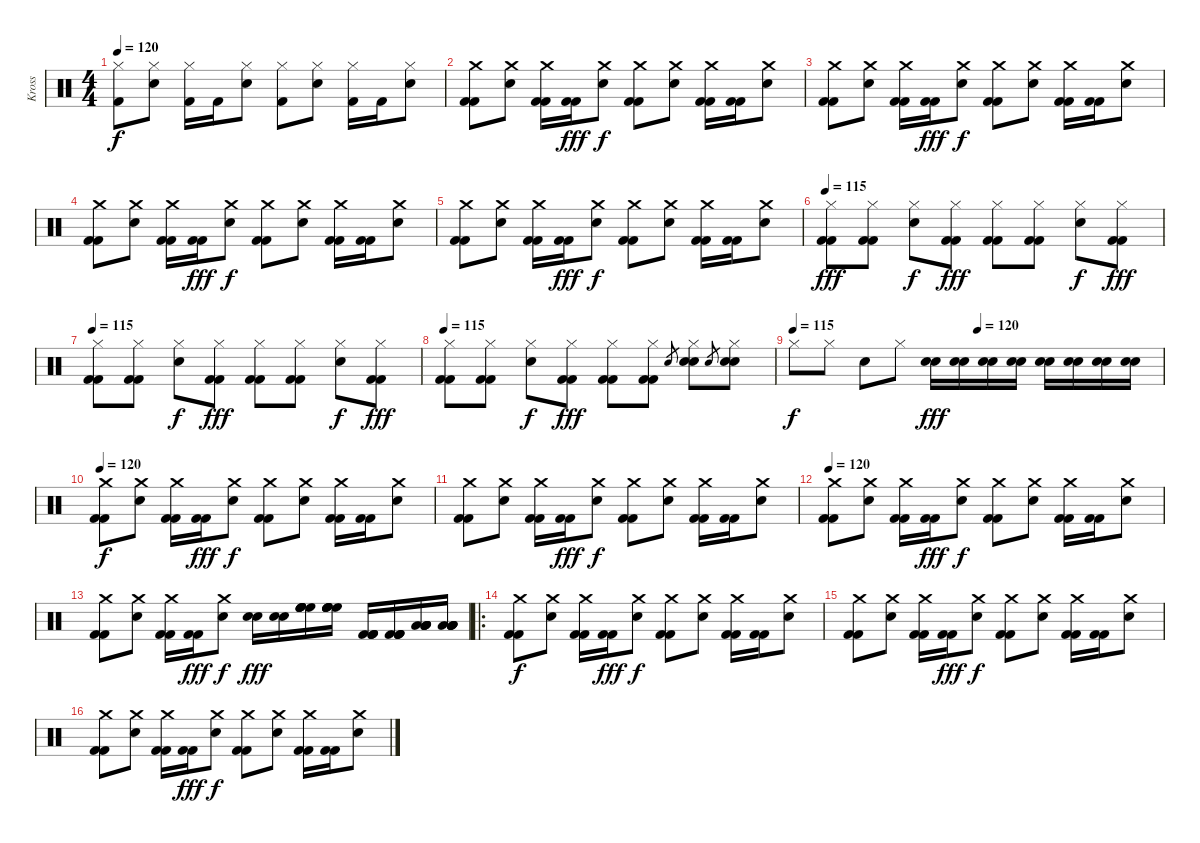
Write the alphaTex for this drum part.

\track ("Kross" "Kross") {instrument percussion}
\staff {score}
\articulation defaults
\ts (4 4)
\tempo 120
\clef neutral
\ks c
("Kick (hit) 2" "Hi-Hat (closed)").8{dy f} ("Hi-Hat (closed)" "Snare (hit) 2").8 ("Kick (hit) 2" "Hi-Hat (closed)").16 "Kick (hit) 2".16 ("Hi-Hat (closed)" "Snare (hit) 2").8 ("Kick (hit) 2" "Hi-Hat (closed)").8 ("Hi-Hat (closed)" "Snare (hit) 2").8 ("Kick (hit) 2" "Hi-Hat (closed)").16 "Kick (hit) 2".16 ("Hi-Hat (closed)" "Snare (hit) 2").8 |
("Kick (hit) 2" "Kick (hit) 2" "Crash medium (hit)").8 ("Crash medium (hit)" "Snare (hit) 2").8 ("Kick (hit) 2" "Kick (hit) 2" "Crash medium (hit)").16 ("Kick (hit) 2" "Kick (hit) 2").16{dy fff} ("Crash medium (hit)" "Snare (hit) 2").8{dy f} ("Kick (hit) 2" "Kick (hit) 2" "Crash medium (hit)").8 ("Crash medium (hit)" "Snare (hit) 2").8 ("Kick (hit) 2" "Kick (hit) 2" "Crash medium (hit)").16 ("Kick (hit) 2" "Kick (hit) 2").16 ("Crash medium (hit)" "Snare (hit) 2").8 |
("Kick (hit) 2" "Kick (hit) 2" "Crash medium (hit)").8 ("Crash medium (hit)" "Snare (hit) 2").8 ("Kick (hit) 2" "Kick (hit) 2" "Crash medium (hit)").16 ("Kick (hit) 2" "Kick (hit) 2").16{dy fff} ("Crash medium (hit)" "Snare (hit) 2").8{dy f} ("Kick (hit) 2" "Kick (hit) 2" "Crash medium (hit)").8 ("Crash medium (hit)" "Snare (hit) 2").8 ("Kick (hit) 2" "Kick (hit) 2" "Crash medium (hit)").16 ("Kick (hit) 2" "Kick (hit) 2").16 ("Crash medium (hit)" "Snare (hit) 2").8 |
("Kick (hit) 2" "Kick (hit) 2" "Crash medium (hit)").8 ("Crash medium (hit)" "Snare (hit) 2").8 ("Kick (hit) 2" "Kick (hit) 2" "Crash medium (hit)").16 ("Kick (hit) 2" "Kick (hit) 2").16{dy fff} ("Crash medium (hit)" "Snare (hit) 2").8{dy f} ("Kick (hit) 2" "Kick (hit) 2" "Crash medium (hit)").8 ("Crash medium (hit)" "Snare (hit) 2").8 ("Kick (hit) 2" "Kick (hit) 2" "Crash medium (hit)").16 ("Kick (hit) 2" "Kick (hit) 2").16 ("Crash medium (hit)" "Snare (hit) 2").8 |
("Kick (hit) 2" "Kick (hit) 2" "Crash medium (hit)").8 ("Crash medium (hit)" "Snare (hit) 2").8 ("Kick (hit) 2" "Kick (hit) 2" "Crash medium (hit)").16 ("Kick (hit) 2" "Kick (hit) 2").16{dy fff} ("Crash medium (hit)" "Snare (hit) 2").8{dy f} ("Kick (hit) 2" "Kick (hit) 2" "Crash medium (hit)").8 ("Crash medium (hit)" "Snare (hit) 2").8 ("Kick (hit) 2" "Kick (hit) 2" "Crash medium (hit)").16 ("Kick (hit) 2" "Kick (hit) 2").16 ("Crash medium (hit)" "Snare (hit) 2").8 |
\tempo 115
("Kick (hit) 2" "Kick (hit) 2" "Hi-Hat (closed)").8{dy fff} ("Kick (hit) 2" "Kick (hit) 2" "Hi-Hat (closed)").8 ("Hi-Hat (closed)" "Snare (hit) 2").8{dy f} ("Kick (hit) 2" "Kick (hit) 2" "Hi-Hat (closed)").8{dy fff} ("Kick (hit) 2" "Kick (hit) 2" "Hi-Hat (closed)").8 ("Kick (hit) 2" "Kick (hit) 2" "Hi-Hat (closed)").8 ("Hi-Hat (closed)" "Snare (hit) 2").8{dy f} ("Kick (hit) 2" "Kick (hit) 2" "Hi-Hat (closed)").8{dy fff} |
\tempo 115
("Kick (hit) 2" "Kick (hit) 2" "Hi-Hat (closed)").8 ("Kick (hit) 2" "Kick (hit) 2" "Hi-Hat (closed)").8 ("Hi-Hat (closed)" "Snare (hit) 2").8{dy f} ("Kick (hit) 2" "Kick (hit) 2" "Hi-Hat (closed)").8{dy fff} ("Kick (hit) 2" "Kick (hit) 2" "Hi-Hat (closed)").8 ("Kick (hit) 2" "Kick (hit) 2" "Hi-Hat (closed)").8 ("Hi-Hat (closed)" "Snare (hit) 2").8{dy f} ("Kick (hit) 2" "Kick (hit) 2" "Hi-Hat (closed)").8{dy fff} |
\tempo 115
("Kick (hit) 2" "Kick (hit) 2" "Hi-Hat (closed)").8 ("Kick (hit) 2" "Kick (hit) 2" "Hi-Hat (closed)").8 ("Hi-Hat (closed)" "Snare (hit) 2").8{dy f} ("Kick (hit) 2" "Kick (hit) 2" "Hi-Hat (closed)").8{dy fff} ("Kick (hit) 2" "Kick (hit) 2" "Hi-Hat (closed)").8 ("Kick (hit) 2" "Kick (hit) 2" "Hi-Hat (closed)").8 "Snare (hit) 2".8{gr} ("Snare (hit) 2" "Hi-Hat (closed)" "Snare (hit) 2").8 "Snare (hit) 2".8{gr} ("Snare (hit) 2" "Hi-Hat (closed)" "Snare (hit) 2").8 |
\tempo (120 0.5)
\tempo (115)
"Hi-Hat (closed)".8{dy f} "Hi-Hat (closed)".8 "Snare (hit) 2".8 "Hi-Hat (closed)".8 ("Snare (hit) 2" "Snare (hit) 2").16{dy fff} ("Snare (hit) 2" "Snare (hit) 2").16 ("Snare (hit) 2" "Snare (hit) 2").16 ("Snare (hit) 2" "Snare (hit) 2").16 ("Snare (hit) 2" "Snare (hit) 2").16 ("Snare (hit) 2" "Snare (hit) 2").16 ("Snare (hit) 2" "Snare (hit) 2").16 ("Snare (hit) 2" "Snare (hit) 2").16 |
\tempo 120
("Kick (hit) 2" "Kick (hit) 2" "Crash medium (hit)").8{dy f} ("Crash medium (hit)" "Snare (hit) 2").8 ("Kick (hit) 2" "Kick (hit) 2" "Crash medium (hit)").16 ("Kick (hit) 2" "Kick (hit) 2").16{dy fff} ("Crash medium (hit)" "Snare (hit) 2").8{dy f} ("Kick (hit) 2" "Kick (hit) 2" "Crash medium (hit)").8 ("Crash medium (hit)" "Snare (hit) 2").8 ("Kick (hit) 2" "Kick (hit) 2" "Crash medium (hit)").16 ("Kick (hit) 2" "Kick (hit) 2").16 ("Crash medium (hit)" "Snare (hit) 2").8 |
("Kick (hit) 2" "Kick (hit) 2" "Crash medium (hit)").8 ("Crash medium (hit)" "Snare (hit) 2").8 ("Kick (hit) 2" "Kick (hit) 2" "Crash medium (hit)").16 ("Kick (hit) 2" "Kick (hit) 2").16{dy fff} ("Crash medium (hit)" "Snare (hit) 2").8{dy f} ("Kick (hit) 2" "Kick (hit) 2" "Crash medium (hit)").8 ("Crash medium (hit)" "Snare (hit) 2").8 ("Kick (hit) 2" "Kick (hit) 2" "Crash medium (hit)").16 ("Kick (hit) 2" "Kick (hit) 2").16 ("Crash medium (hit)" "Snare (hit) 2").8 |
\tempo 120
("Kick (hit) 2" "Kick (hit) 2" "Crash medium (hit)").8 ("Crash medium (hit)" "Snare (hit) 2").8 ("Kick (hit) 2" "Kick (hit) 2" "Crash medium (hit)").16 ("Kick (hit) 2" "Kick (hit) 2").16{dy fff} ("Crash medium (hit)" "Snare (hit) 2").8{dy f} ("Kick (hit) 2" "Kick (hit) 2" "Crash medium (hit)").8 ("Crash medium (hit)" "Snare (hit) 2").8 ("Kick (hit) 2" "Kick (hit) 2" "Crash medium (hit)").16 ("Kick (hit) 2" "Kick (hit) 2").16 ("Crash medium (hit)" "Snare (hit) 2").8 |
("Kick (hit) 2" "Kick (hit) 2" "Crash medium (hit)").8 ("Crash medium (hit)" "Snare (hit) 2").8 ("Kick (hit) 2" "Kick (hit) 2" "Crash medium (hit)").16 ("Kick (hit) 2" "Kick (hit) 2").16{dy fff} ("Crash medium (hit)" "Snare (hit) 2").8{dy f} ("Snare (hit) 2" "Snare (hit) 2").16{dy fff} ("Snare (hit) 2" "Snare (hit) 2").16 ("High Floor Tom (hit)" "High Floor Tom (hit)" "High Floor Tom (hit)" "High Floor Tom (hit)" "High Floor Tom (hit)").16 ("High Floor Tom (hit)" "High Floor Tom (hit)" "High Floor Tom (hit)" "High Floor Tom (hit)" "High Floor Tom (hit)").16 ("Kick (hit) 2" "Kick (hit) 2" "Kick (hit) 2" "Kick (hit) 2").16 ("Kick (hit) 2" "Kick (hit) 2" "Kick (hit) 2" "Kick (hit) 2").16 ("Low Floor Tom (hit)" "Low Floor Tom (hit)" "Low Floor Tom (hit)" "Low Floor Tom (hit)" "Low Floor Tom (hit)").16 ("Low Floor Tom (hit)" "Low Floor Tom (hit)" "Low Floor Tom (hit)" "Low Floor Tom (hit)" "Low Floor Tom (hit)").16 |
\ro
("Kick (hit) 2" "Kick (hit) 2" "Crash medium (hit)").8{dy f} ("Crash medium (hit)" "Snare (hit) 2").8 ("Kick (hit) 2" "Kick (hit) 2" "Crash medium (hit)").16 ("Kick (hit) 2" "Kick (hit) 2").16{dy fff} ("Crash medium (hit)" "Snare (hit) 2").8{dy f} ("Kick (hit) 2" "Kick (hit) 2" "Crash medium (hit)").8 ("Crash medium (hit)" "Snare (hit) 2").8 ("Kick (hit) 2" "Kick (hit) 2" "Crash medium (hit)").16 ("Kick (hit) 2" "Kick (hit) 2").16 ("Crash medium (hit)" "Snare (hit) 2").8 |
("Kick (hit) 2" "Kick (hit) 2" "Crash medium (hit)").8 ("Crash medium (hit)" "Snare (hit) 2").8 ("Kick (hit) 2" "Kick (hit) 2" "Crash medium (hit)").16 ("Kick (hit) 2" "Kick (hit) 2").16{dy fff} ("Crash medium (hit)" "Snare (hit) 2").8{dy f} ("Kick (hit) 2" "Kick (hit) 2" "Crash medium (hit)").8 ("Crash medium (hit)" "Snare (hit) 2").8 ("Kick (hit) 2" "Kick (hit) 2" "Crash medium (hit)").16 ("Kick (hit) 2" "Kick (hit) 2").16 ("Crash medium (hit)" "Snare (hit) 2").8 |
("Kick (hit) 2" "Kick (hit) 2" "Crash medium (hit)").8 ("Crash medium (hit)" "Snare (hit) 2").8 ("Kick (hit) 2" "Kick (hit) 2" "Crash medium (hit)").16 ("Kick (hit) 2" "Kick (hit) 2").16{dy fff} ("Crash medium (hit)" "Snare (hit) 2").8{dy f} ("Kick (hit) 2" "Kick (hit) 2" "Crash medium (hit)").8 ("Crash medium (hit)" "Snare (hit) 2").8 ("Kick (hit) 2" "Kick (hit) 2" "Crash medium (hit)").16 ("Kick (hit) 2" "Kick (hit) 2").16 ("Crash medium (hit)" "Snare (hit) 2").8
